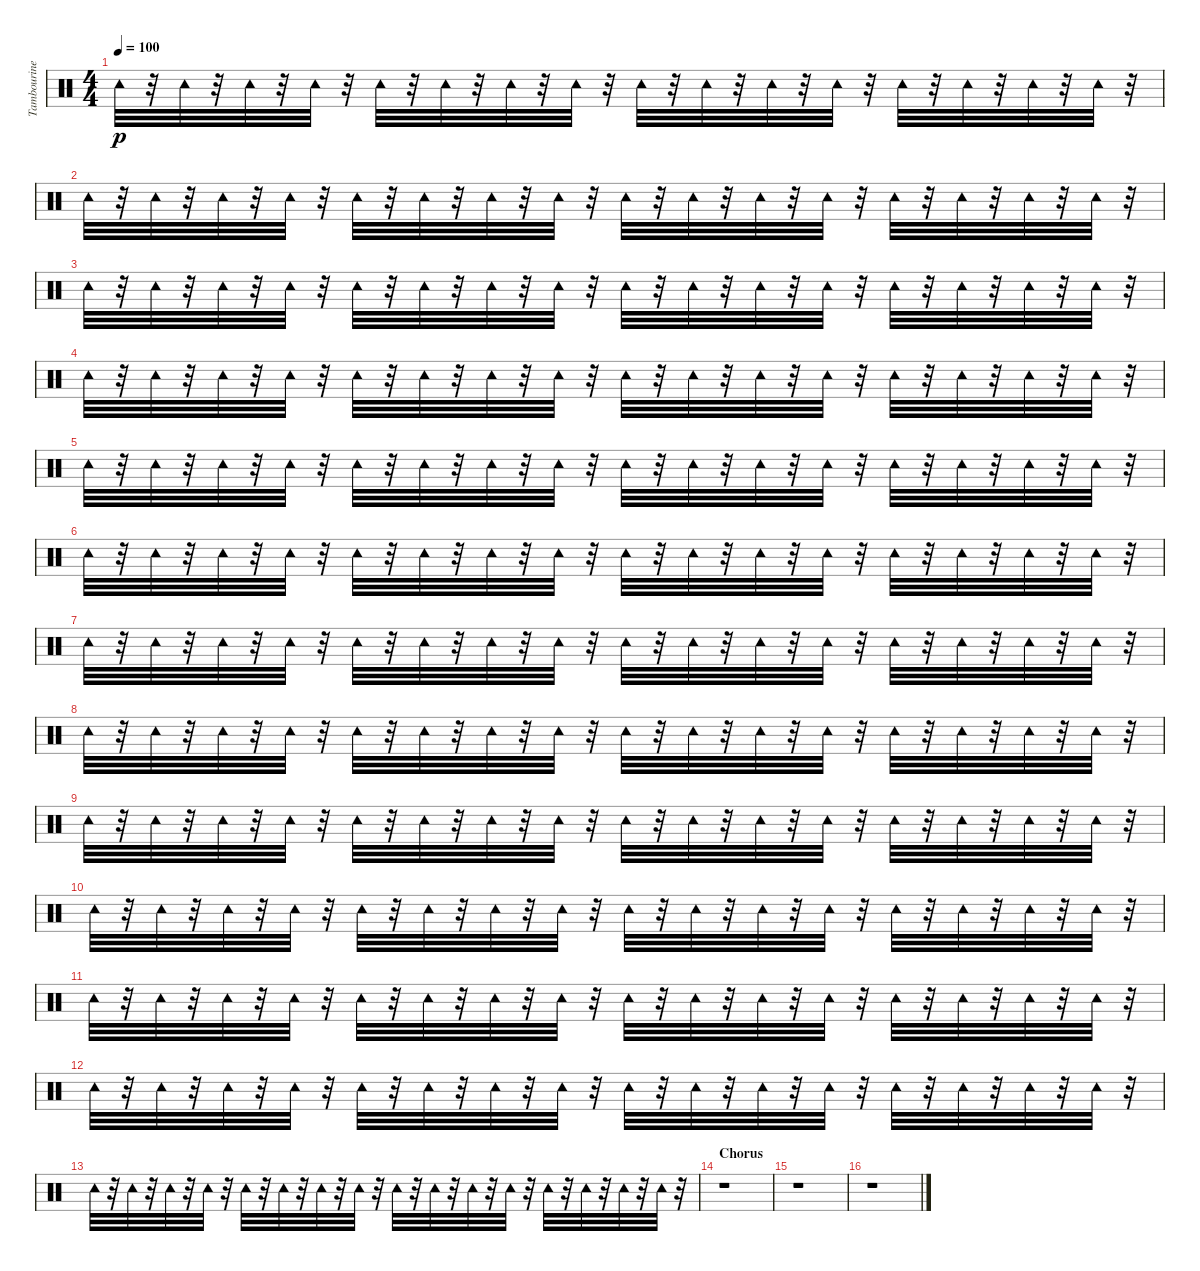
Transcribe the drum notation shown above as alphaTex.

\track ("Tambourine" "Tambourine") {instrument percussion}
\staff {score}
\articulation defaults
\ts (4 4)
\tempo 100
\clef neutral
\ks c "Tambourine (hit)".32{dy p}
r.32 "Tambourine (hit)".32 r.32 "Tambourine (hit)".32 r.32 "Tambourine (hit)".32 r.32 "Tambourine (hit)".32 r.32 "Tambourine (hit)".32 r.32 "Tambourine (hit)".32 r.32 "Tambourine (hit)".32 r.32 "Tambourine (hit)".32 r.32 "Tambourine (hit)".32 r.32 "Tambourine (hit)".32 r.32 "Tambourine (hit)".32 r.32 "Tambourine (hit)".32 r.32 "Tambourine (hit)".32 r.32 "Tambourine (hit)".32 r.32 "Tambourine (hit)".32 r.32 |
"Tambourine (hit)".32 r.32 "Tambourine (hit)".32 r.32 "Tambourine (hit)".32 r.32 "Tambourine (hit)".32 r.32 "Tambourine (hit)".32 r.32 "Tambourine (hit)".32 r.32 "Tambourine (hit)".32 r.32 "Tambourine (hit)".32 r.32 "Tambourine (hit)".32 r.32 "Tambourine (hit)".32 r.32 "Tambourine (hit)".32 r.32 "Tambourine (hit)".32 r.32 "Tambourine (hit)".32 r.32 "Tambourine (hit)".32 r.32 "Tambourine (hit)".32 r.32 "Tambourine (hit)".32 r.32 |
"Tambourine (hit)".32 r.32 "Tambourine (hit)".32 r.32 "Tambourine (hit)".32 r.32 "Tambourine (hit)".32 r.32 "Tambourine (hit)".32 r.32 "Tambourine (hit)".32 r.32 "Tambourine (hit)".32 r.32 "Tambourine (hit)".32 r.32 "Tambourine (hit)".32 r.32 "Tambourine (hit)".32 r.32 "Tambourine (hit)".32 r.32 "Tambourine (hit)".32 r.32 "Tambourine (hit)".32 r.32 "Tambourine (hit)".32 r.32 "Tambourine (hit)".32 r.32 "Tambourine (hit)".32 r.32 |
"Tambourine (hit)".32 r.32 "Tambourine (hit)".32 r.32 "Tambourine (hit)".32 r.32 "Tambourine (hit)".32 r.32 "Tambourine (hit)".32 r.32 "Tambourine (hit)".32 r.32 "Tambourine (hit)".32 r.32 "Tambourine (hit)".32 r.32 "Tambourine (hit)".32 r.32 "Tambourine (hit)".32 r.32 "Tambourine (hit)".32 r.32 "Tambourine (hit)".32 r.32 "Tambourine (hit)".32 r.32 "Tambourine (hit)".32 r.32 "Tambourine (hit)".32 r.32 "Tambourine (hit)".32 r.32 |
"Tambourine (hit)".32 r.32 "Tambourine (hit)".32 r.32 "Tambourine (hit)".32 r.32 "Tambourine (hit)".32 r.32 "Tambourine (hit)".32 r.32 "Tambourine (hit)".32 r.32 "Tambourine (hit)".32 r.32 "Tambourine (hit)".32 r.32 "Tambourine (hit)".32 r.32 "Tambourine (hit)".32 r.32 "Tambourine (hit)".32 r.32 "Tambourine (hit)".32 r.32 "Tambourine (hit)".32 r.32 "Tambourine (hit)".32 r.32 "Tambourine (hit)".32 r.32 "Tambourine (hit)".32 r.32 |
"Tambourine (hit)".32 r.32 "Tambourine (hit)".32 r.32 "Tambourine (hit)".32 r.32 "Tambourine (hit)".32 r.32 "Tambourine (hit)".32 r.32 "Tambourine (hit)".32 r.32 "Tambourine (hit)".32 r.32 "Tambourine (hit)".32 r.32 "Tambourine (hit)".32 r.32 "Tambourine (hit)".32 r.32 "Tambourine (hit)".32 r.32 "Tambourine (hit)".32 r.32 "Tambourine (hit)".32 r.32 "Tambourine (hit)".32 r.32 "Tambourine (hit)".32 r.32 "Tambourine (hit)".32 r.32 |
"Tambourine (hit)".32 r.32 "Tambourine (hit)".32 r.32 "Tambourine (hit)".32 r.32 "Tambourine (hit)".32 r.32 "Tambourine (hit)".32 r.32 "Tambourine (hit)".32 r.32 "Tambourine (hit)".32 r.32 "Tambourine (hit)".32 r.32 "Tambourine (hit)".32 r.32 "Tambourine (hit)".32 r.32 "Tambourine (hit)".32 r.32 "Tambourine (hit)".32 r.32 "Tambourine (hit)".32 r.32 "Tambourine (hit)".32 r.32 "Tambourine (hit)".32 r.32 "Tambourine (hit)".32 r.32 |
"Tambourine (hit)".32 r.32 "Tambourine (hit)".32 r.32 "Tambourine (hit)".32 r.32 "Tambourine (hit)".32 r.32 "Tambourine (hit)".32 r.32 "Tambourine (hit)".32 r.32 "Tambourine (hit)".32 r.32 "Tambourine (hit)".32 r.32 "Tambourine (hit)".32 r.32 "Tambourine (hit)".32 r.32 "Tambourine (hit)".32 r.32 "Tambourine (hit)".32 r.32 "Tambourine (hit)".32 r.32 "Tambourine (hit)".32 r.32 "Tambourine (hit)".32 r.32 "Tambourine (hit)".32 r.32 |
"Tambourine (hit)".32 r.32 "Tambourine (hit)".32 r.32 "Tambourine (hit)".32 r.32 "Tambourine (hit)".32 r.32 "Tambourine (hit)".32 r.32 "Tambourine (hit)".32 r.32 "Tambourine (hit)".32 r.32 "Tambourine (hit)".32 r.32 "Tambourine (hit)".32 r.32 "Tambourine (hit)".32 r.32 "Tambourine (hit)".32 r.32 "Tambourine (hit)".32 r.32 "Tambourine (hit)".32 r.32 "Tambourine (hit)".32 r.32 "Tambourine (hit)".32 r.32 "Tambourine (hit)".32 r.32 |
"Tambourine (hit)".32 r.32 "Tambourine (hit)".32 r.32 "Tambourine (hit)".32 r.32 "Tambourine (hit)".32 r.32 "Tambourine (hit)".32 r.32 "Tambourine (hit)".32 r.32 "Tambourine (hit)".32 r.32 "Tambourine (hit)".32 r.32 "Tambourine (hit)".32 r.32 "Tambourine (hit)".32 r.32 "Tambourine (hit)".32 r.32 "Tambourine (hit)".32 r.32 "Tambourine (hit)".32 r.32 "Tambourine (hit)".32 r.32 "Tambourine (hit)".32 r.32 "Tambourine (hit)".32 r.32 |
"Tambourine (hit)".32 r.32 "Tambourine (hit)".32 r.32 "Tambourine (hit)".32 r.32 "Tambourine (hit)".32 r.32 "Tambourine (hit)".32 r.32 "Tambourine (hit)".32 r.32 "Tambourine (hit)".32 r.32 "Tambourine (hit)".32 r.32 "Tambourine (hit)".32 r.32 "Tambourine (hit)".32 r.32 "Tambourine (hit)".32 r.32 "Tambourine (hit)".32 r.32 "Tambourine (hit)".32 r.32 "Tambourine (hit)".32 r.32 "Tambourine (hit)".32 r.32 "Tambourine (hit)".32 r.32 |
"Tambourine (hit)".32 r.32 "Tambourine (hit)".32 r.32 "Tambourine (hit)".32 r.32 "Tambourine (hit)".32 r.32 "Tambourine (hit)".32 r.32 "Tambourine (hit)".32 r.32 "Tambourine (hit)".32 r.32 "Tambourine (hit)".32 r.32 "Tambourine (hit)".32 r.32 "Tambourine (hit)".32 r.32 "Tambourine (hit)".32 r.32 "Tambourine (hit)".32 r.32 "Tambourine (hit)".32 r.32 "Tambourine (hit)".32 r.32 "Tambourine (hit)".32 r.32 "Tambourine (hit)".32 r.32 |
"Tambourine (hit)".32 r.32 "Tambourine (hit)".32 r.32 "Tambourine (hit)".32 r.32 "Tambourine (hit)".32 r.32 "Tambourine (hit)".32 r.32 "Tambourine (hit)".32 r.32 "Tambourine (hit)".32 r.32 "Tambourine (hit)".32 r.32 "Tambourine (hit)".32 r.32 "Tambourine (hit)".32 r.32 "Tambourine (hit)".32 r.32 "Tambourine (hit)".32 r.32 "Tambourine (hit)".32 r.32 "Tambourine (hit)".32 r.32 "Tambourine (hit)".32 r.32 "Tambourine (hit)".32 r.32 |
\section ("" "Chorus")
r.1 |
r.1 |
r.1
